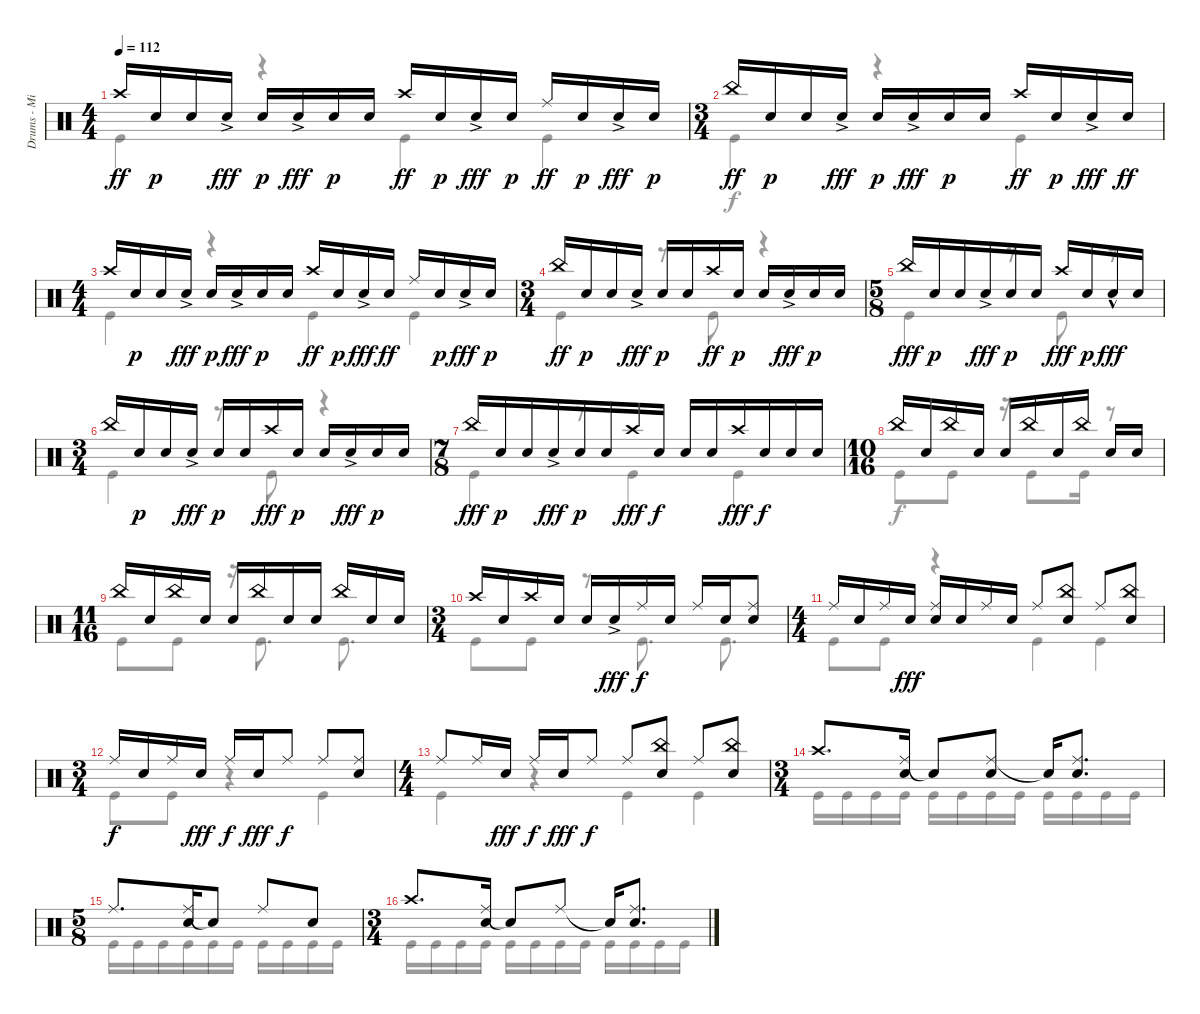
\track ("Drums - Mike Portnoy" "Drums - Mi") {instrument percussion}
\staff {score}
\articulation defaults
\voice
\ts (4 4)
\tempo 112
\clef neutral
\ks c "Crash high (hit)".16{dy ff} "Snare (hit) 2".16{dy p} "Snare (hit) 2".16 "Snare (hit) 2"{ac}.16{dy fff} "Snare (hit) 2".16{dy p} "Snare (hit) 2"{ac}.16{dy fff} "Snare (hit) 2".16{dy p} "Snare (hit) 2".16 "Crash high (hit)".16{dy ff} "Snare (hit) 2".16{dy p} "Snare (hit) 2"{ac}.16{dy fff} "Snare (hit) 2".16{dy p} "Ride (middle)".16{dy ff} "Snare (hit) 2".16{dy p} "Snare (hit) 2"{ac}.16{dy fff} "Snare (hit) 2".16{dy p}
|
\ts (3 4)
"China (hit)".16{dy ff} "Snare (hit) 2".16{dy p} "Snare (hit) 2".16 "Snare (hit) 2"{ac}.16{dy fff} "Snare (hit) 2".16{dy p} "Snare (hit) 2"{ac}.16{dy fff} "Snare (hit) 2".16{dy p} "Snare (hit) 2".16 "Crash high (hit)".16{dy ff} "Snare (hit) 2".16{dy p} "Snare (hit) 2"{ac}.16{dy fff} "Snare (hit) 2".16{dy ff} |
\ts (4 4)
"Crash high (hit)".16 "Snare (hit) 2".16{dy p} "Snare (hit) 2".16 "Snare (hit) 2"{ac}.16{dy fff} "Snare (hit) 2".16{dy p} "Snare (hit) 2"{ac}.16{dy fff} "Snare (hit) 2".16{dy p} "Snare (hit) 2".16 "Crash high (hit)".16{dy ff} "Snare (hit) 2".16{dy p} "Snare (hit) 2"{ac}.16{dy fff} "Snare (hit) 2".16{dy ff} "Ride (middle)".16 "Snare (hit) 2".16{dy p} "Snare (hit) 2"{ac}.16{dy fff} "Snare (hit) 2".16{dy p} |
\ts (3 4)
"China (hit)".16{dy ff} "Snare (hit) 2".16{dy p} "Snare (hit) 2".16 "Snare (hit) 2"{ac}.16{dy fff} "Snare (hit) 2".16{dy p} "Snare (hit) 2".16 "Crash high (hit)".16{dy ff} "Snare (hit) 2".16{dy p} "Snare (hit) 2".16 "Snare (hit) 2"{ac}.16{dy fff} "Snare (hit) 2".16{dy p} "Snare (hit) 2".16 |
\ts (5 8)
"China (hit)".16{dy fff} "Snare (hit) 2".16{dy p} "Snare (hit) 2".16 "Snare (hit) 2"{ac}.16{dy fff} "Snare (hit) 2".16{dy p} "Snare (hit) 2".16 "Crash high (hit)".16{dy fff} "Snare (hit) 2".16{dy p} "Snare (hit) 2"{hac}.16{dy fff} "Snare (hit) 2".16 |
\ts (3 4)
"China (hit)".16 "Snare (hit) 2".16{dy p} "Snare (hit) 2".16 "Snare (hit) 2"{ac}.16{dy fff} "Snare (hit) 2".16{dy p} "Snare (hit) 2".16 "Crash high (hit)".16{dy fff} "Snare (hit) 2".16{dy p} "Snare (hit) 2".16 "Snare (hit) 2"{ac}.16{dy fff} "Snare (hit) 2".16{dy p} "Snare (hit) 2".16 |
\ts (7 8)
"China (hit)".16{dy fff} "Snare (hit) 2".16{dy p} "Snare (hit) 2".16 "Snare (hit) 2"{ac}.16{dy fff} "Snare (hit) 2".16{dy p} "Snare (hit) 2".16 "Crash high (hit)".16{dy fff} "Snare (hit) 2".16{dy f} "Snare (hit) 2".16 "Snare (hit) 2".16 "Crash high (hit)".16{dy fff} "Snare (hit) 2".16{dy f} "Snare (hit) 2".16 "Snare (hit) 2".16 |
\ts (10 16)
"China (hit)".16 "Snare (hit) 2".16 "China (hit)".16 "Snare (hit) 2".16 "Snare (hit) 2".16 "China (hit)".16 "Snare (hit) 2".16 "China (hit)".16 "Snare (hit) 2".16 "Snare (hit) 2".16 |
\ts (11 16)
"China (hit)".16 "Snare (hit) 2".16 "China (hit)".16 "Snare (hit) 2".16 "Snare (hit) 2".16 "China (hit)".16 "Snare (hit) 2".16 "Snare (hit) 2".16 "China (hit)".16 "Snare (hit) 2".16 "Snare (hit) 2".16 |
\ts (3 4)
"Crash high (hit)".16 "Snare (hit) 2".16 "Crash high (hit)".16 "Snare (hit) 2".16 "Snare (hit) 2".16 "Snare (hit) 2"{ac}.16{dy fff} "Ride (middle)".16{dy f} "Snare (hit) 2".16 "Ride (middle)".16 "Snare (hit) 2".16 ("Ride (middle)" "Snare (hit) 2").8 |
\ts (4 4)
"Ride (middle)".16 "Snare (hit) 2".16 "Ride (middle)".16 "Snare (hit) 2".16{dy fff} ("Ride (middle)" "Snare (hit) 2").16 "Snare (hit) 2".16 "Ride (middle)".16 "Snare (hit) 2".16 "Ride (middle)".8 ("China (hit)" "Snare (hit) 2").8 "Ride (middle)".8 ("China (hit)" "Snare (hit) 2").8 |
\ts (3 4)
"Ride (middle)".16{dy f} "Snare (hit) 2".16 "Ride (middle)".16 "Snare (hit) 2".16{dy fff} "Ride (middle)".16{dy f} "Snare (hit) 2".16{dy fff} "Ride (middle)".8{dy f} "Ride (middle)".8 ("Ride (middle)" "Snare (hit) 2").8 |
\ts (4 4)
"Ride (middle)".8 "Ride (middle)".16 "Snare (hit) 2".16{dy fff} "Ride (middle)".16{dy f} "Snare (hit) 2".16{dy fff} "Ride (middle)".8{dy f} "Ride (middle)".8 ("China (hit)" "Snare (hit) 2").8 "Ride (middle)".8 ("China (hit)" "Snare (hit) 2").8 |
\ts (3 4)
"Crash high (hit)".8{d} ("Ride (middle)" "Snare (hit) 2").16 "Snare (hit)"{t}.8 ("Ride (middle)" "Snare (hit) 2").8 "Snare (hit)"{t}.16 ("Ride (middle)" "Snare (hit) 2").8{d} |
\ts (5 8)
"Ride (middle)".8{d} ("Ride (middle)" "Snare (hit) 2").16 "Snare (hit)"{t}.8 "Ride (middle)".8 "Snare (hit) 2".8 |
\ts (3 4)
"Crash high (hit)".8{d} ("Ride (middle)" "Snare (hit) 2").16 "Snare (hit)"{t}.8 "Ride (middle)".8 "Snare (hit)"{t}.16 ("Ride (middle)" "Snare (hit) 2").8{d}
\voice
\clef neutral
\ottava regular
\simile none
\ks c "Kick (hit)".4{dy ff}
r.4 "Kick (hit)".4 "Kick (hit)".4 |
"Kick (hit)".4{dy f} r.4 "Kick (hit)".4 |
"Kick (hit)".4 r.4 "Kick (hit)".4 "Kick (hit)".4 |
"Kick (hit)".4 r.8 "Kick (hit)".8 r.4 |
"Kick (hit)".4{dy fff} r.8 "Kick (hit)".8 r.8 |
"Kick (hit)".4 r.8 "Kick (hit)".8 r.4 |
"Kick (hit)".4 r.8 "Kick (hit)".4 "Kick (hit)".4 |
"Kick (hit)".8{dy f} "Kick (hit)".8 r.16 "Kick (hit)".8 "Kick (hit)".16 r.8 |
"Kick (hit)".8 "Kick (hit)".8 r.16 "Kick (hit)".8{d} "Kick (hit)".8{d} |
"Kick (hit)".8 "Kick (hit)".8 r.8 "Kick (hit)".8{d} "Kick (hit)".8{d} |
"Kick (hit)".8 "Kick (hit)".8 r.4 "Kick (hit)".4 "Kick (hit)".4 |
"Kick (hit)".8 "Kick (hit)".8 r.4 "Kick (hit)".4 |
"Kick (hit)".4 r.4 "Kick (hit)".4 "Kick (hit)".4 |
"Kick (hit)".16 "Kick (hit)".16 "Kick (hit)".16 "Kick (hit)".16 "Kick (hit)".16 "Kick (hit)".16 "Kick (hit)".16 "Kick (hit)".16 "Kick (hit)".16 "Kick (hit)".16 "Kick (hit)".16 "Kick (hit)".16 |
"Kick (hit)".16 "Kick (hit)".16 "Kick (hit)".16 "Kick (hit)".16 "Kick (hit)".16 "Kick (hit)".16 "Kick (hit)".16 "Kick (hit)".16 "Kick (hit)".16 "Kick (hit)".16 |
"Kick (hit)".16 "Kick (hit)".16 "Kick (hit)".16 "Kick (hit)".16 "Kick (hit)".16 "Kick (hit)".16 "Kick (hit)".16 "Kick (hit)".16 "Kick (hit)".16 "Kick (hit)".16 "Kick (hit)".16 "Kick (hit)".16
